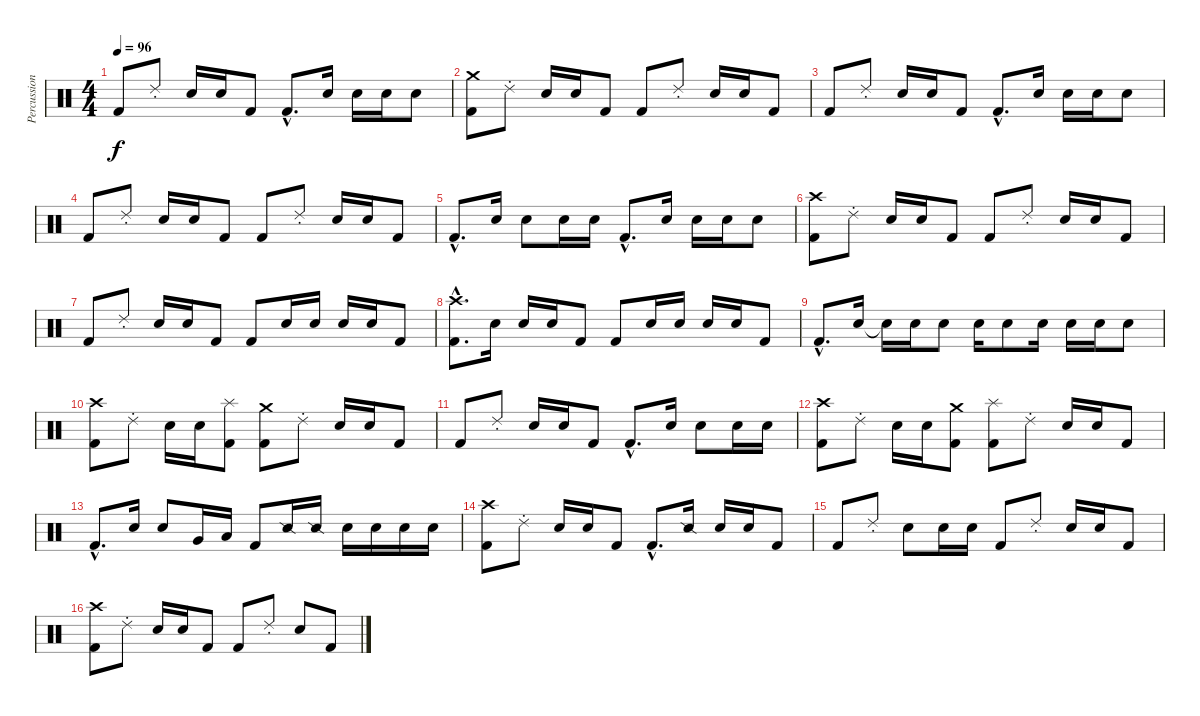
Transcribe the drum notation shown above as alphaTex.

\track ("Percussion" "Percussion") {instrument percussion}
\staff {score}
\articulation defaults
\ts (4 4)
\tempo 96
\clef neutral
\ks c "Kick (hit) 2".8{dy f} "Ride (choke) 2".8 "Electric Snare (hit)".16 "Electric Snare (hit)".16 "Kick (hit) 2".8 "Kick (hit) 2"{hac}.8{d} "Electric Snare (hit)".16 "Electric Snare (hit)".16 "Electric Snare (hit)".16 "Electric Snare (hit)".8
|
("Crash medium (hit)" "Kick (hit) 2").8 "Ride (choke) 2".8 "Electric Snare (hit)".16 "Electric Snare (hit)".16 "Kick (hit) 2".8 "Kick (hit) 2".8 "Ride (choke) 2".8 "Electric Snare (hit)".16 "Electric Snare (hit)".16 "Kick (hit) 2".8 |
"Kick (hit) 2".8 "Ride (choke) 2".8 "Electric Snare (hit)".16 "Electric Snare (hit)".16 "Kick (hit) 2".8 "Kick (hit) 2"{hac}.8{d} "Electric Snare (hit)".16 "Electric Snare (hit)".16 "Electric Snare (hit)".16 "Electric Snare (hit)".8 |
"Kick (hit) 2".8 "Ride (choke) 2".8 "Electric Snare (hit)".16 "Electric Snare (hit)".16 "Kick (hit) 2".8 "Kick (hit) 2".8 "Ride (choke) 2".8 "Electric Snare (hit)".16 "Electric Snare (hit)".16 "Kick (hit) 2".8 |
"Kick (hit) 2"{hac}.8{d} "Electric Snare (hit)".16 "Electric Snare (hit)".8 "Electric Snare (hit)".16 "Electric Snare (hit)".16 "Kick (hit) 2"{hac}.8{d} "Electric Snare (hit)".16 "Electric Snare (hit)".16 "Electric Snare (hit)".16 "Electric Snare (hit)".8 |
("Crash high (hit)" "Kick (hit) 2").8 "Ride (choke) 2".8 "Electric Snare (hit)".16 "Electric Snare (hit)".16 "Kick (hit) 2".8 "Kick (hit) 2".8 "Ride (choke) 2".8 "Electric Snare (hit)".16 "Electric Snare (hit)".16 "Kick (hit) 2".8 |
"Kick (hit) 2".8 "Ride (choke) 2".8 "Electric Snare (hit)".16 "Electric Snare (hit)".16 "Kick (hit) 2".8 "Kick (hit) 2".8 "Electric Snare (hit)".16 "Electric Snare (hit)".16 "Electric Snare (hit)".16 "Electric Snare (hit)".16 "Kick (hit) 2".8 |
("Crash high (hit)"{hac} "Kick (hit) 2"{hac}).8{d} "Electric Snare (hit)".16 "Electric Snare (hit)".16 "Electric Snare (hit)".16 "Kick (hit) 2".8 "Kick (hit) 2".8 "Electric Snare (hit)".16 "Electric Snare (hit)".16 "Electric Snare (hit)".16 "Electric Snare (hit)".16 "Kick (hit) 2".8 |
"Kick (hit) 2"{hac}.8{d} "Electric Snare (hit)".16 "Snare (hit)"{t}.16 "Electric Snare (hit)".16 "Electric Snare (hit)".8 "Electric Snare (hit)".16 "Electric Snare (hit)".8 "Electric Snare (hit)".16 "Electric Snare (hit)".16 "Electric Snare (hit)".16 "Electric Snare (hit)".8 |
("Crash high (hit)" "Kick (hit) 2").8 "Ride (choke) 2".8 "Electric Snare (hit)".16 "Electric Snare (hit)".16 ("Splash (hit)" "Kick (hit) 2").8 ("Crash medium (hit)" "Kick (hit) 2").8 "Ride (choke) 2".8 "Electric Snare (hit)".16 "Electric Snare (hit)".16 "Kick (hit) 2".8 |
"Kick (hit) 2".8 "Ride (choke) 2".8 "Electric Snare (hit)".16 "Electric Snare (hit)".16 "Kick (hit) 2".8 "Kick (hit) 2"{hac}.8{d} "Electric Snare (hit)".16 "Electric Snare (hit)".8 "Electric Snare (hit)".16 "Electric Snare (hit)".16 |
("Crash high (hit)" "Kick (hit) 2").8 "Ride (choke) 2".8 "Electric Snare (hit)".16 "Electric Snare (hit)".16 ("Crash medium (hit)" "Kick (hit) 2").8 ("Splash (hit)" "Kick (hit) 2").8 "Ride (choke) 2".8 "Electric Snare (hit)".16 "Electric Snare (hit)".16 "Kick (hit) 2".8 |
"Kick (hit) 2"{hac}.8{d} "Electric Snare (hit)".16 "Electric Snare (hit)".8 "Very Low Tom (hit)".16 "Low Floor Tom (hit)".16 "Kick (hit) 2".8 "Snare (side stick) 2".16 "Snare (side stick) 2".16 "Electric Snare (hit)".16 "Electric Snare (hit)".16 "Electric Snare (hit)".16 "Electric Snare (hit)".16 |
("Crash high (hit)" "Kick (hit) 2").8 "Ride (choke) 2".8 "Electric Snare (hit)".16 "Electric Snare (hit)".16 "Kick (hit) 2".8 "Kick (hit) 2"{hac}.8{d} "Snare (side stick) 2".16 "Electric Snare (hit)".16 "Electric Snare (hit)".16 "Kick (hit) 2".8 |
"Kick (hit) 2".8 "Ride (choke) 2".8 "Electric Snare (hit)".8 "Electric Snare (hit)".16 "Electric Snare (hit)".16 "Kick (hit) 2".8 "Ride (choke) 2".8 "Electric Snare (hit)".16 "Electric Snare (hit)".16 "Kick (hit) 2".8 |
("Crash high (hit)" "Kick (hit) 2").8 "Ride (choke) 2".8 "Electric Snare (hit)".16 "Electric Snare (hit)".16 "Kick (hit) 2".8 "Kick (hit) 2".8 "Ride (choke) 2".8 "Electric Snare (hit)".8 "Kick (hit) 2".8
